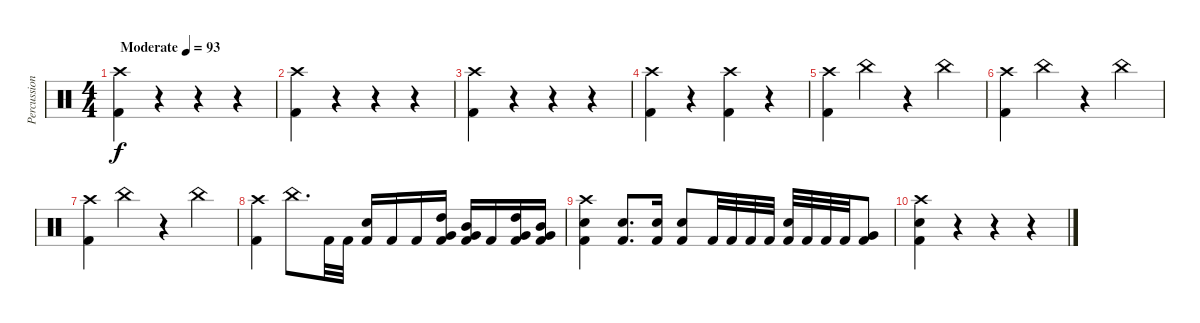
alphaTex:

\track ("Percussions" "Percussion") {instrument percussion}
\staff {score}
\articulation defaults
\ts (4 4)
\tempo (93 "Moderate")
\clef neutral
\ks c
("Crash high (hit)" "Kick (hit) 2").4{dy f} r.4 r.4 r.4 |
("Crash high (hit)" "Kick (hit) 2").4 r.4 r.4 r.4 |
("Crash high (hit)" "Kick (hit) 2").4 r.4 r.4 r.4 |
("Crash high (hit)" "Kick (hit) 2").4 r.4 ("Crash high (hit)" "Kick (hit) 2").4 r.4 |
("Crash high (hit)" "Kick (hit) 2").4 "China (hit)".4 r.4 "China (hit)".4 |
("Crash high (hit)" "Kick (hit) 2").4 "China (hit)".4 r.4 "China (hit)".4 |
("Crash high (hit)" "Kick (hit) 2").4 "China (hit)".4 r.4 "China (hit)".4 |
("Crash high (hit)" "Kick (hit) 2").4 "China (hit)".8{d} "Kick (hit) 2".32 "Kick (hit) 2".32 ("Electric Snare (hit)" "Kick (hit) 2").16 "Kick (hit) 2".16 "Kick (hit) 2".16 ("High Tom (hit)" "Very Low Tom (hit)" "Kick (hit) 2").16 ("Mid Tom (hit)" "Very Low Tom (hit)" "Kick (hit) 2").16 "Kick (hit) 2".16 ("High Tom (hit)" "Very Low Tom (hit)" "Kick (hit) 2").16 ("Mid Tom (hit)" "Very Low Tom (hit)" "Kick (hit) 2").16 |
("Crash high (hit)" "Electric Snare (hit)" "Kick (hit) 2").4 ("Electric Snare (hit)" "Kick (hit) 2").8{d} ("Electric Snare (hit)" "Kick (hit) 2").16 ("Electric Snare (hit)" "Kick (hit) 2").8 "Kick (hit) 2".32 "Kick (hit) 2".32 "Kick (hit) 2".32 "Kick (hit) 2".32 ("Electric Snare (hit)" "Kick (hit) 2").32 "Kick (hit) 2".32 "Kick (hit) 2".32 "Kick (hit) 2".32 ("Very Low Tom (hit)" "Kick (hit) 2").8 |
("Crash high (hit)" "Electric Snare (hit)" "Kick (hit) 2").4 r.4 r.4 r.4
